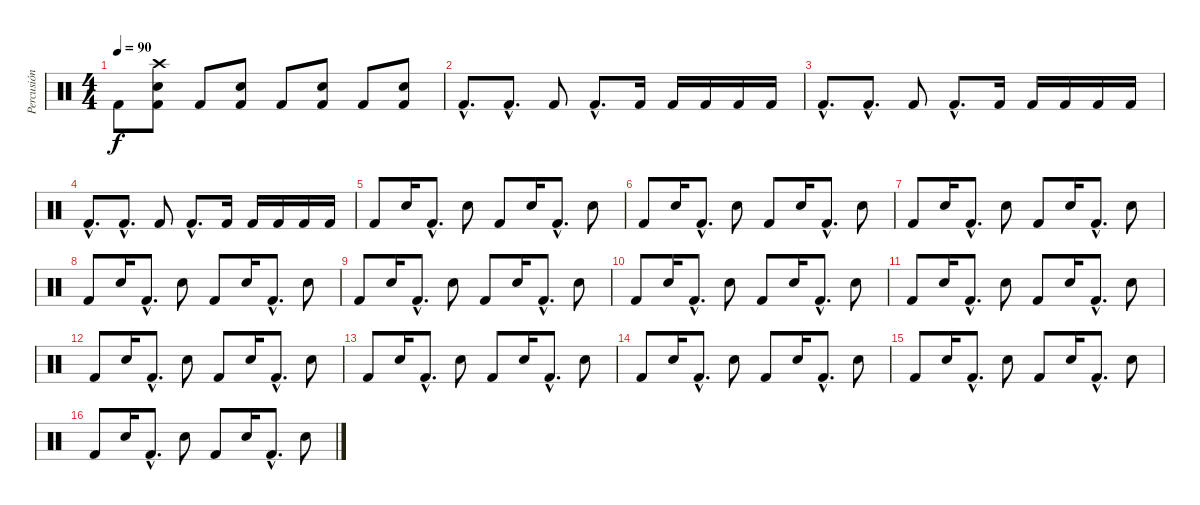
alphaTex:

\track ("Percusión" "Percusión") {instrument percussion}
\staff {score}
\articulation defaults
\ts (4 4)
\tempo 90
\clef neutral
\ks c "Kick (hit) 2".8{dy f}
("Electric Snare (hit)" "Kick (hit) 2" "Crash high (hit)").8 "Kick (hit) 2".8 ("Electric Snare (hit)" "Kick (hit) 2").8 "Kick (hit) 2".8 ("Electric Snare (hit)" "Kick (hit) 2").8 "Kick (hit) 2".8 ("Electric Snare (hit)" "Kick (hit) 2").8 |
"Kick (hit) 2"{hac}.8{d} "Kick (hit) 2"{hac}.8{d} "Kick (hit) 2".8 "Kick (hit) 2"{hac}.8{d} "Kick (hit) 2".16 "Kick (hit) 2".16 "Kick (hit) 2".16 "Kick (hit) 2".16 "Kick (hit) 2".16 |
"Kick (hit) 2"{hac}.8{d} "Kick (hit) 2"{hac}.8{d} "Kick (hit) 2".8 "Kick (hit) 2"{hac}.8{d} "Kick (hit) 2".16 "Kick (hit) 2".16 "Kick (hit) 2".16 "Kick (hit) 2".16 "Kick (hit) 2".16 |
"Kick (hit) 2"{hac}.8{d} "Kick (hit) 2"{hac}.8{d} "Kick (hit) 2".8 "Kick (hit) 2"{hac}.8{d} "Kick (hit) 2".16 "Kick (hit) 2".16 "Kick (hit) 2".16 "Kick (hit) 2".16 "Kick (hit) 2".16 |
"Kick (hit) 2".8 "Electric Snare (hit)".16 "Kick (hit) 2"{hac}.8{d} "Electric Snare (hit)".8 "Kick (hit) 2".8 "Electric Snare (hit)".16 "Kick (hit) 2"{hac}.8{d} "Electric Snare (hit)".8 |
"Kick (hit) 2".8 "Electric Snare (hit)".16 "Kick (hit) 2"{hac}.8{d} "Electric Snare (hit)".8 "Kick (hit) 2".8 "Electric Snare (hit)".16 "Kick (hit) 2"{hac}.8{d} "Electric Snare (hit)".8 |
"Kick (hit) 2".8 "Electric Snare (hit)".16 "Kick (hit) 2"{hac}.8{d} "Electric Snare (hit)".8 "Kick (hit) 2".8 "Electric Snare (hit)".16 "Kick (hit) 2"{hac}.8{d} "Electric Snare (hit)".8 |
"Kick (hit) 2".8 "Electric Snare (hit)".16 "Kick (hit) 2"{hac}.8{d} "Electric Snare (hit)".8 "Kick (hit) 2".8 "Electric Snare (hit)".16 "Kick (hit) 2"{hac}.8{d} "Electric Snare (hit)".8 |
"Kick (hit) 2".8 "Electric Snare (hit)".16 "Kick (hit) 2"{hac}.8{d} "Electric Snare (hit)".8 "Kick (hit) 2".8 "Electric Snare (hit)".16 "Kick (hit) 2"{hac}.8{d} "Electric Snare (hit)".8 |
"Kick (hit) 2".8 "Electric Snare (hit)".16 "Kick (hit) 2"{hac}.8{d} "Electric Snare (hit)".8 "Kick (hit) 2".8 "Electric Snare (hit)".16 "Kick (hit) 2"{hac}.8{d} "Electric Snare (hit)".8 |
"Kick (hit) 2".8 "Electric Snare (hit)".16 "Kick (hit) 2"{hac}.8{d} "Electric Snare (hit)".8 "Kick (hit) 2".8 "Electric Snare (hit)".16 "Kick (hit) 2"{hac}.8{d} "Electric Snare (hit)".8 |
"Kick (hit) 2".8 "Electric Snare (hit)".16 "Kick (hit) 2"{hac}.8{d} "Electric Snare (hit)".8 "Kick (hit) 2".8 "Electric Snare (hit)".16 "Kick (hit) 2"{hac}.8{d} "Electric Snare (hit)".8 |
"Kick (hit) 2".8 "Electric Snare (hit)".16 "Kick (hit) 2"{hac}.8{d} "Electric Snare (hit)".8 "Kick (hit) 2".8 "Electric Snare (hit)".16 "Kick (hit) 2"{hac}.8{d} "Electric Snare (hit)".8 |
"Kick (hit) 2".8 "Electric Snare (hit)".16 "Kick (hit) 2"{hac}.8{d} "Electric Snare (hit)".8 "Kick (hit) 2".8 "Electric Snare (hit)".16 "Kick (hit) 2"{hac}.8{d} "Electric Snare (hit)".8 |
"Kick (hit) 2".8 "Electric Snare (hit)".16 "Kick (hit) 2"{hac}.8{d} "Electric Snare (hit)".8 "Kick (hit) 2".8 "Electric Snare (hit)".16 "Kick (hit) 2"{hac}.8{d} "Electric Snare (hit)".8 |
"Kick (hit) 2".8 "Electric Snare (hit)".16 "Kick (hit) 2"{hac}.8{d} "Electric Snare (hit)".8 "Kick (hit) 2".8 "Electric Snare (hit)".16 "Kick (hit) 2"{hac}.8{d} "Electric Snare (hit)".8
